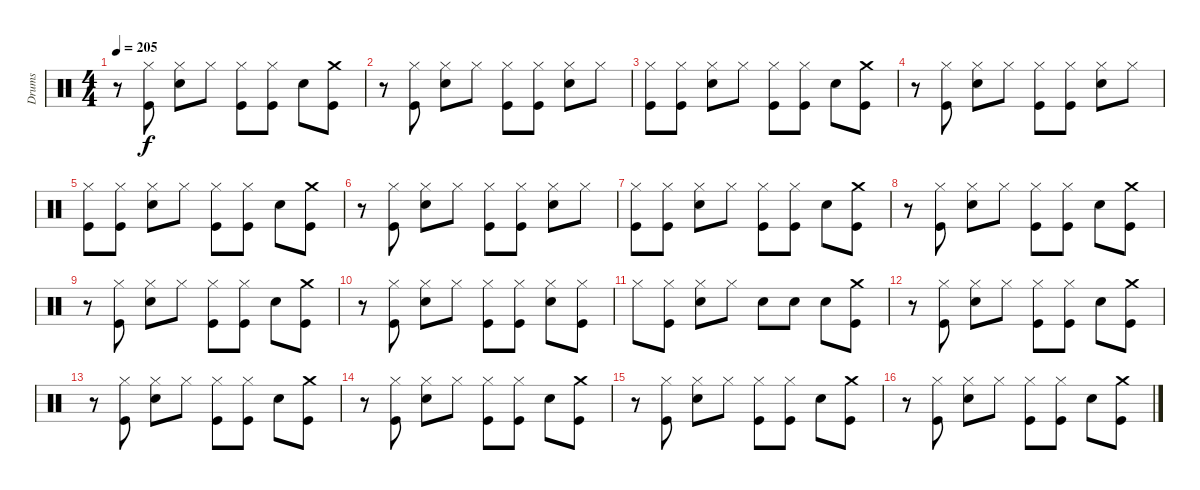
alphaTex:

\track ("Drums" "Drums") {instrument percussion}
\staff {score}
\articulation defaults
\ts (4 4)
\tempo 205
\clef neutral
\ks c
r.8{dy f} ("Hi-Hat (closed)" "Kick (hit)").8 ("Hi-Hat (closed)" "Electric Snare (hit)").8 "Hi-Hat (closed)".8 ("Hi-Hat (closed)" "Kick (hit)").8 ("Hi-Hat (closed)" "Kick (hit)").8 "Electric Snare (hit)".8 ("Crash medium (hit)" "Kick (hit)").8 |
r.8 ("Hi-Hat (closed)" "Kick (hit)").8 ("Hi-Hat (closed)" "Electric Snare (hit)").8 "Hi-Hat (closed)".8 ("Hi-Hat (closed)" "Kick (hit)").8 ("Hi-Hat (closed)" "Kick (hit)").8 ("Hi-Hat (closed)" "Electric Snare (hit)").8 "Hi-Hat (closed)".8 |
("Hi-Hat (closed)" "Kick (hit)").8 ("Hi-Hat (closed)" "Kick (hit)").8 ("Hi-Hat (closed)" "Electric Snare (hit)").8 "Hi-Hat (closed)".8 ("Hi-Hat (closed)" "Kick (hit)").8 ("Hi-Hat (closed)" "Kick (hit)").8 "Electric Snare (hit)".8 ("Crash medium (hit)" "Kick (hit)").8 |
r.8 ("Hi-Hat (closed)" "Kick (hit)").8 ("Hi-Hat (closed)" "Electric Snare (hit)").8 "Hi-Hat (closed)".8 ("Hi-Hat (closed)" "Kick (hit)").8 ("Hi-Hat (closed)" "Kick (hit)").8 ("Hi-Hat (closed)" "Electric Snare (hit)").8 "Hi-Hat (closed)".8 |
("Hi-Hat (closed)" "Kick (hit)").8 ("Hi-Hat (closed)" "Kick (hit)").8 ("Hi-Hat (closed)" "Electric Snare (hit)").8 "Hi-Hat (closed)".8 ("Hi-Hat (closed)" "Kick (hit)").8 ("Hi-Hat (closed)" "Kick (hit)").8 "Electric Snare (hit)".8 ("Crash medium (hit)" "Kick (hit)").8 |
r.8 ("Hi-Hat (closed)" "Kick (hit)").8 ("Hi-Hat (closed)" "Electric Snare (hit)").8 "Hi-Hat (closed)".8 ("Hi-Hat (closed)" "Kick (hit)").8 ("Hi-Hat (closed)" "Kick (hit)").8 ("Hi-Hat (closed)" "Electric Snare (hit)").8 "Hi-Hat (closed)".8 |
("Hi-Hat (closed)" "Kick (hit)").8 ("Hi-Hat (closed)" "Kick (hit)").8 ("Hi-Hat (closed)" "Electric Snare (hit)").8 "Hi-Hat (closed)".8 ("Hi-Hat (closed)" "Kick (hit)").8 ("Hi-Hat (closed)" "Kick (hit)").8 "Electric Snare (hit)".8 ("Crash medium (hit)" "Kick (hit)").8 |
r.8 ("Hi-Hat (closed)" "Kick (hit)").8 ("Hi-Hat (closed)" "Electric Snare (hit)").8 "Hi-Hat (closed)".8 ("Hi-Hat (closed)" "Kick (hit)").8 ("Hi-Hat (closed)" "Kick (hit)").8 "Electric Snare (hit)".8 ("Crash medium (hit)" "Kick (hit)").8 |
r.8 ("Hi-Hat (closed)" "Kick (hit)").8 ("Hi-Hat (closed)" "Electric Snare (hit)").8 "Hi-Hat (closed)".8 ("Hi-Hat (closed)" "Kick (hit)").8 ("Hi-Hat (closed)" "Kick (hit)").8 "Electric Snare (hit)".8 ("Crash medium (hit)" "Kick (hit)").8 |
r.8 ("Hi-Hat (closed)" "Kick (hit)").8 ("Hi-Hat (closed)" "Electric Snare (hit)").8 "Hi-Hat (closed)".8 ("Hi-Hat (closed)" "Kick (hit)").8 ("Hi-Hat (closed)" "Kick (hit)").8 ("Hi-Hat (closed)" "Electric Snare (hit)").8 ("Hi-Hat (closed)" "Kick (hit)").8 |
"Hi-Hat (closed)".8 ("Hi-Hat (closed)" "Kick (hit)").8 ("Hi-Hat (closed)" "Electric Snare (hit)").8 "Hi-Hat (closed)".8 "Electric Snare (hit)".8 "Electric Snare (hit)".8 "Electric Snare (hit)".8 ("Crash medium (hit)" "Kick (hit)").8 |
r.8 ("Hi-Hat (closed)" "Kick (hit)").8 ("Hi-Hat (closed)" "Electric Snare (hit)").8 "Hi-Hat (closed)".8 ("Hi-Hat (closed)" "Kick (hit)").8 ("Hi-Hat (closed)" "Kick (hit)").8 "Electric Snare (hit)".8 ("Crash medium (hit)" "Kick (hit)").8 |
r.8 ("Hi-Hat (closed)" "Kick (hit)").8 ("Hi-Hat (closed)" "Electric Snare (hit)").8 "Hi-Hat (closed)".8 ("Hi-Hat (closed)" "Kick (hit)").8 ("Hi-Hat (closed)" "Kick (hit)").8 "Electric Snare (hit)".8 ("Crash medium (hit)" "Kick (hit)").8 |
r.8 ("Hi-Hat (closed)" "Kick (hit)").8 ("Hi-Hat (closed)" "Electric Snare (hit)").8 "Hi-Hat (closed)".8 ("Hi-Hat (closed)" "Kick (hit)").8 ("Hi-Hat (closed)" "Kick (hit)").8 "Electric Snare (hit)".8 ("Crash medium (hit)" "Kick (hit)").8 |
r.8 ("Hi-Hat (closed)" "Kick (hit)").8 ("Hi-Hat (closed)" "Electric Snare (hit)").8 "Hi-Hat (closed)".8 ("Hi-Hat (closed)" "Kick (hit)").8 ("Hi-Hat (closed)" "Kick (hit)").8 "Electric Snare (hit)".8 ("Crash medium (hit)" "Kick (hit)").8 |
r.8 ("Hi-Hat (closed)" "Kick (hit)").8 ("Hi-Hat (closed)" "Electric Snare (hit)").8 "Hi-Hat (closed)".8 ("Hi-Hat (closed)" "Kick (hit)").8 ("Hi-Hat (closed)" "Kick (hit)").8 "Electric Snare (hit)".8 ("Crash medium (hit)" "Kick (hit)").8
